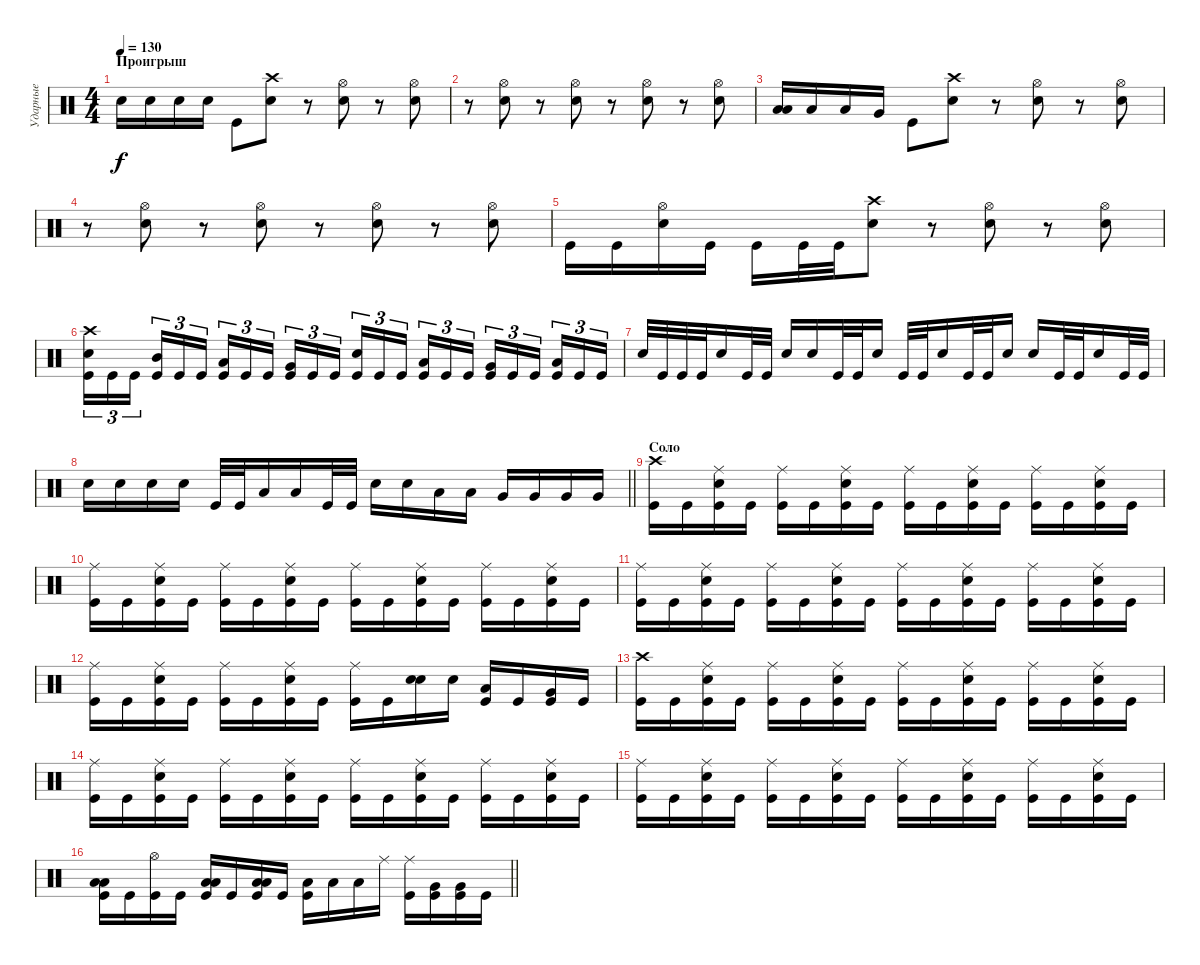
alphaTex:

\track ("Ударные" "Ударные") {instrument percussion}
\staff {score}
\articulation defaults
\ts (4 4)
\section ("" "Проигрыш")
\tempo 130
\clef neutral
\ks c "Snare (hit) 2".16{dy f} "Snare (hit) 2".16 "Snare (hit) 2".16 "Snare (hit) 2".16 "Kick (hit)".8
("Snare (hit) 2" "Crash high (hit)").8 r.8 ("Snare (hit) 2" "Hi-Hat (open)").8 r.8 ("Snare (hit) 2" "Hi-Hat (open)").8 |
r.8 ("Snare (hit) 2" "Hi-Hat (open)").8 r.8 ("Snare (hit) 2" "Hi-Hat (open)").8 r.8 ("Snare (hit) 2" "Hi-Hat (open)").8 r.8 ("Snare (hit) 2" "Hi-Hat (open)").8 |
("Low Tom (hit)" "Low Tom (hit)").16{bd 60} "Low Tom (hit)".16 "Low Tom (hit)".16 "Very Low Tom (hit)".16 "Kick (hit)".8 ("Snare (hit) 2" "Crash high (hit)").8 r.8 ("Snare (hit) 2" "Hi-Hat (open)").8 r.8 ("Snare (hit) 2" "Hi-Hat (open)").8 |
r.8 ("Snare (hit) 2" "Hi-Hat (open)").8 r.8 ("Snare (hit) 2" "Hi-Hat (open)").8 r.8 ("Snare (hit) 2" "Hi-Hat (open)").8 r.8 ("Snare (hit) 2" "Hi-Hat (open)").8 |
"Kick (hit)".16 "Kick (hit)".16 ("Snare (hit) 2" "Hi-Hat (open)").16 "Kick (hit)".16 "Kick (hit)".16 "Kick (hit)".32 "Kick (hit)".32 ("Snare (hit) 2" "Crash high (hit)").8 r.8 ("Snare (hit) 2" "Hi-Hat (open)").8 r.8 ("Snare (hit) 2" "Hi-Hat (open)").8 |
("Kick (hit)" "Snare (hit) 2" "Crash high (hit)").16{tu (3 2)} "Kick (hit)".16{tu (3 2)} "Kick (hit)".16{tu (3 2) beam splitsecondary} ("Kick (hit)" "Mid Tom (hit)").16{tu (3 2)} "Kick (hit)".16{tu (3 2)} "Kick (hit)".16{tu (3 2)} ("Kick (hit)" "Low Tom (hit)").16{tu (3 2)} "Kick (hit)".16{tu (3 2)} "Kick (hit)".16{tu (3 2) beam splitsecondary} ("Kick (hit)" "Very Low Tom (hit)").16{tu (3 2)} "Kick (hit)".16{tu (3 2)} "Kick (hit)".16{tu (3 2)} ("Kick (hit)" "Snare (hit) 2").16{tu (3 2)} "Kick (hit)".16{tu (3 2)} "Kick (hit)".16{tu (3 2) beam splitsecondary} ("Kick (hit)" "Low Tom (hit)").16{tu (3 2)} "Kick (hit)".16{tu (3 2)} "Kick (hit)".16{tu (3 2)} ("Kick (hit)" "Very Low Tom (hit)").16{tu (3 2)} "Kick (hit)".16{tu (3 2)} "Kick (hit)".16{tu (3 2) beam splitsecondary} ("Kick (hit)" "Low Floor Tom (hit)").16{tu (3 2)} "Kick (hit)".16{tu (3 2)} "Kick (hit)".16{tu (3 2)} |
"Snare (hit) 2".32 "Kick (hit)".32 "Kick (hit)".32 "Kick (hit)".32 "Snare (hit) 2".16 "Kick (hit)".32 "Kick (hit)".32 "Snare (hit) 2".16 "Snare (hit) 2".16 "Kick (hit)".32 "Kick (hit)".32 "Snare (hit) 2".16 "Kick (hit)".32 "Kick (hit)".32 "Snare (hit) 2".16 "Kick (hit)".32 "Kick (hit)".32 "Snare (hit) 2".16 "Snare (hit) 2".16 "Kick (hit)".32 "Kick (hit)".32 "Snare (hit) 2".16 "Kick (hit)".32 "Kick (hit)".32 |
\barLineRight lightlight "Snare (hit) 2".16 "Snare (hit) 2".16 "Snare (hit) 2".16 "Snare (hit) 2".16 "Kick (hit)".32 "Kick (hit)".32 "Low Tom (hit)".16 "Low Tom (hit)".16 "Kick (hit)".32 "Kick (hit)".32 "Snare (hit) 2".16 "Snare (hit) 2".16 "Low Tom (hit)".16 "Low Tom (hit)".16 "Very Low Tom (hit)".16 "Very Low Tom (hit)".16 "Very Low Tom (hit)".16 "Very Low Tom (hit)".16
|
\section ("" "Соло")
("Kick (hit)" "Crash high (hit)").16 "Kick (hit)".16 ("Kick (hit)" "Snare (hit) 2" "Ride (middle)").16 "Kick (hit)".16 ("Kick (hit)" "Ride (middle)").16 "Kick (hit)".16 ("Kick (hit)" "Snare (hit) 2" "Ride (middle)").16 "Kick (hit)".16 ("Kick (hit)" "Ride (middle)").16 "Kick (hit)".16 ("Kick (hit)" "Snare (hit) 2" "Ride (middle)").16 "Kick (hit)".16 ("Kick (hit)" "Ride (middle)").16 "Kick (hit)".16 ("Kick (hit)" "Snare (hit) 2" "Ride (middle)").16 "Kick (hit)".16 |
("Kick (hit)" "Ride (middle)").16 "Kick (hit)".16 ("Kick (hit)" "Snare (hit) 2" "Ride (middle)").16 "Kick (hit)".16 ("Kick (hit)" "Ride (middle)").16 "Kick (hit)".16 ("Kick (hit)" "Snare (hit) 2" "Ride (middle)").16 "Kick (hit)".16 ("Kick (hit)" "Ride (middle)").16 "Kick (hit)".16 ("Kick (hit)" "Snare (hit) 2" "Ride (middle)").16 "Kick (hit)".16 ("Kick (hit)" "Ride (middle)").16 "Kick (hit)".16 ("Kick (hit)" "Snare (hit) 2" "Ride (middle)").16 "Kick (hit)".16 |
("Kick (hit)" "Ride (middle)").16 "Kick (hit)".16 ("Kick (hit)" "Snare (hit) 2" "Ride (middle)").16 "Kick (hit)".16 ("Kick (hit)" "Ride (middle)").16 "Kick (hit)".16 ("Kick (hit)" "Snare (hit) 2" "Ride (middle)").16 "Kick (hit)".16 ("Kick (hit)" "Ride (middle)").16 "Kick (hit)".16 ("Kick (hit)" "Snare (hit) 2" "Ride (middle)").16 "Kick (hit)".16 ("Kick (hit)" "Ride (middle)").16 "Kick (hit)".16 ("Kick (hit)" "Snare (hit) 2" "Ride (middle)").16 "Kick (hit)".16 |
("Kick (hit)" "Ride (middle)").16 "Kick (hit)".16 ("Kick (hit)" "Snare (hit) 2" "Ride (middle)").16 "Kick (hit)".16 ("Kick (hit)" "Ride (middle)").16 "Kick (hit)".16 ("Kick (hit)" "Snare (hit) 2" "Ride (middle)").16 "Kick (hit)".16 ("Kick (hit)" "Ride (middle)").16 "Kick (hit)".16 ("Snare (hit) 2" "Snare (hit) 2").16{bd 60} "Snare (hit) 2".16 ("Kick (hit)" "Low Tom (hit)").16 "Kick (hit)".16 ("Kick (hit)" "Very Low Tom (hit)").16 "Kick (hit)".16 |
("Kick (hit)" "Crash high (hit)").16 "Kick (hit)".16 ("Kick (hit)" "Snare (hit) 2" "Ride (middle)").16 "Kick (hit)".16 ("Kick (hit)" "Ride (middle)").16 "Kick (hit)".16 ("Kick (hit)" "Snare (hit) 2" "Ride (middle)").16 "Kick (hit)".16 ("Kick (hit)" "Ride (middle)").16 "Kick (hit)".16 ("Kick (hit)" "Snare (hit) 2" "Ride (middle)").16 "Kick (hit)".16 ("Kick (hit)" "Ride (middle)").16 "Kick (hit)".16 ("Kick (hit)" "Snare (hit) 2" "Ride (middle)").16 "Kick (hit)".16 |
("Kick (hit)" "Ride (middle)").16 "Kick (hit)".16 ("Kick (hit)" "Snare (hit) 2" "Ride (middle)").16 "Kick (hit)".16 ("Kick (hit)" "Ride (middle)").16 "Kick (hit)".16 ("Kick (hit)" "Snare (hit) 2" "Ride (middle)").16 "Kick (hit)".16 ("Kick (hit)" "Ride (middle)").16 "Kick (hit)".16 ("Kick (hit)" "Snare (hit) 2" "Ride (middle)").16 "Kick (hit)".16 ("Kick (hit)" "Ride (middle)").16 "Kick (hit)".16 ("Kick (hit)" "Snare (hit) 2" "Ride (middle)").16 "Kick (hit)".16 |
("Kick (hit)" "Ride (middle)").16 "Kick (hit)".16 ("Kick (hit)" "Snare (hit) 2" "Ride (middle)").16 "Kick (hit)".16 ("Kick (hit)" "Ride (middle)").16 "Kick (hit)".16 ("Kick (hit)" "Snare (hit) 2" "Ride (middle)").16 "Kick (hit)".16 ("Kick (hit)" "Ride (middle)").16 "Kick (hit)".16 ("Kick (hit)" "Snare (hit) 2" "Ride (middle)").16 "Kick (hit)".16 ("Kick (hit)" "Ride (middle)").16 "Kick (hit)".16 ("Kick (hit)" "Snare (hit) 2" "Ride (middle)").16 "Kick (hit)".16 |
\barLineRight lightlight
("Kick (hit)" "Low Tom (hit)" "Low Tom (hit)").16 "Kick (hit)".16 ("Kick (hit)" "Hi-Hat (open)").16 "Kick (hit)".16 ("Kick (hit)" "Low Tom (hit)" "Low Tom (hit)").16 "Kick (hit)".16 ("Kick (hit)" "Low Tom (hit)" "Low Tom (hit)").16 "Kick (hit)".16 ("Kick (hit)" "Low Tom (hit)").16 "Low Tom (hit)".16 "Low Tom (hit)".16 "Ride (middle)".16 ("Kick (hit)" "Ride (middle)").16 ("Kick (hit)" "Very Low Tom (hit)").16 ("Kick (hit)" "Very Low Tom (hit)").16 "Kick (hit)".16
